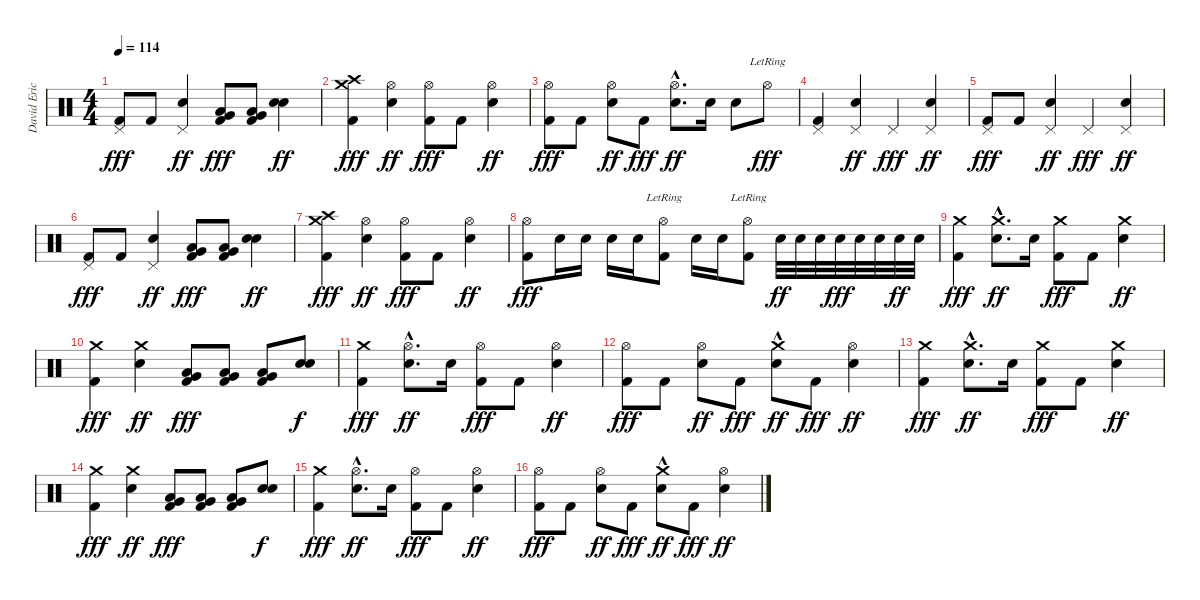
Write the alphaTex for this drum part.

\track ("David Eric Grohl" "David Eric") {instrument percussion}
\staff {score}
\articulation defaults
\ts (4 4)
\tempo 114
\clef neutral
\ks c
("Pedal Hi-Hat (hit)" "Kick (hit) 2").8{dy fff} "Kick (hit) 2".8 ("Pedal Hi-Hat (hit)" "Electric Snare (hit)").4{dy ff} ("Low Tom (hit)" "Very Low Tom (hit)" "Kick (hit) 2").8{dy fff} ("Low Tom (hit)" "Very Low Tom (hit)" "Kick (hit) 2").8 ("Electric Snare (hit)" "Electric Snare (hit)").4{dy ff} |
("Crash medium (hit)" "Crash high (hit)" "Kick (hit) 2").4{dy fff} ("Hi-Hat (open)" "Electric Snare (hit)").4{dy ff} ("Hi-Hat (open)" "Kick (hit) 2").8{dy fff} "Kick (hit) 2".8 ("Hi-Hat (open)" "Electric Snare (hit)").4{dy ff} |
("Hi-Hat (open)" "Kick (hit) 2").8{dy fff} "Kick (hit) 2".8 ("Hi-Hat (open)" "Electric Snare (hit)").8{dy ff} "Kick (hit) 2".8{dy fff} ("Hi-Hat (open)"{hac} "Electric Snare (hit)"{hac}).8{d dy ff} "Electric Snare (hit)".16 "Electric Snare (hit)".8 "Hi-Hat (open)"{lr}.8{dy fff} |
("Pedal Hi-Hat (hit)" "Kick (hit) 2").4 ("Pedal Hi-Hat (hit)" "Electric Snare (hit)").4{dy ff} "Pedal Hi-Hat (hit)".4{dy fff} ("Pedal Hi-Hat (hit)" "Electric Snare (hit)").4{dy ff} |
("Pedal Hi-Hat (hit)" "Kick (hit) 2").8{dy fff} "Kick (hit) 2".8 ("Pedal Hi-Hat (hit)" "Electric Snare (hit)").4{dy ff} "Pedal Hi-Hat (hit)".4{dy fff} ("Pedal Hi-Hat (hit)" "Electric Snare (hit)").4{dy ff} |
("Pedal Hi-Hat (hit)" "Kick (hit) 2").8{dy fff} "Kick (hit) 2".8 ("Pedal Hi-Hat (hit)" "Electric Snare (hit)").4{dy ff} ("Low Tom (hit)" "Very Low Tom (hit)" "Kick (hit) 2").8{dy fff} ("Low Tom (hit)" "Very Low Tom (hit)" "Kick (hit) 2").8 ("Electric Snare (hit)" "Electric Snare (hit)").4{dy ff} |
("Crash medium (hit)" "Crash high (hit)" "Kick (hit) 2").4{dy fff} ("Hi-Hat (open)" "Electric Snare (hit)").4{dy ff} ("Hi-Hat (open)" "Kick (hit) 2").8{dy fff} "Kick (hit) 2".8 ("Hi-Hat (open)" "Electric Snare (hit)").4{dy ff} |
("Hi-Hat (open)" "Kick (hit) 2").8{dy fff} "Electric Snare (hit)".16 "Electric Snare (hit)".16 "Electric Snare (hit)".16 "Electric Snare (hit)".16 ("Hi-Hat (open)"{lr} "Kick (hit) 2").8 "Electric Snare (hit)".16 "Electric Snare (hit)".16 ("Hi-Hat (open)"{lr} "Kick (hit) 2").8 "Electric Snare (hit)".32{dy ff} "Electric Snare (hit)".32 "Electric Snare (hit)".32 "Electric Snare (hit)".32{dy fff} "Electric Snare (hit)".32 "Electric Snare (hit)".32 "Electric Snare (hit)".32{dy ff} "Electric Snare (hit)".32 |
("Crash medium (hit)" "Kick (hit) 2").4{dy fff} ("Crash medium (hit)"{hac} "Electric Snare (hit)"{hac}).8{d dy ff} "Electric Snare (hit)".16 ("Crash medium (hit)" "Kick (hit) 2").8{dy fff} "Kick (hit) 2".8 ("Crash medium (hit)" "Electric Snare (hit)").4{dy ff} |
("Crash medium (hit)" "Kick (hit) 2").4{dy fff} ("Crash medium (hit)" "Electric Snare (hit)").4{dy ff} ("Low Tom (hit)" "Very Low Tom (hit)" "Kick (hit) 2").8{dy fff} ("Low Tom (hit)" "Very Low Tom (hit)" "Kick (hit) 2").8 ("Low Tom (hit)" "Very Low Tom (hit)" "Kick (hit) 2").8 ("Electric Snare (hit)" "Electric Snare (hit)").8{dy f} |
("Crash medium (hit)" "Kick (hit) 2").4{dy fff} ("Hi-Hat (open)"{hac} "Electric Snare (hit)"{hac}).8{d dy ff} "Electric Snare (hit)".16 ("Hi-Hat (open)" "Kick (hit) 2").8{dy fff} "Kick (hit) 2".8 ("Hi-Hat (open)" "Electric Snare (hit)").4{dy ff} |
("Hi-Hat (open)" "Kick (hit) 2").8{dy fff} "Kick (hit) 2".8 ("Hi-Hat (open)" "Electric Snare (hit)").8{dy ff} "Kick (hit) 2".8{dy fff} ("Crash medium (hit)"{hac} "Electric Snare (hit)").8{dy ff} "Kick (hit) 2".8{dy fff} ("Hi-Hat (open)" "Electric Snare (hit)").4{dy ff} |
("Crash medium (hit)" "Kick (hit) 2").4{dy fff} ("Crash medium (hit)"{hac} "Electric Snare (hit)"{hac}).8{d dy ff} "Electric Snare (hit)".16 ("Crash medium (hit)" "Kick (hit) 2").8{dy fff} "Kick (hit) 2".8 ("Crash medium (hit)" "Electric Snare (hit)").4{dy ff} |
("Crash medium (hit)" "Kick (hit) 2").4{dy fff} ("Crash medium (hit)" "Electric Snare (hit)").4{dy ff} ("Low Tom (hit)" "Very Low Tom (hit)" "Kick (hit) 2").8{dy fff} ("Low Tom (hit)" "Very Low Tom (hit)" "Kick (hit) 2").8 ("Low Tom (hit)" "Very Low Tom (hit)" "Kick (hit) 2").8 ("Electric Snare (hit)" "Electric Snare (hit)").8{dy f} |
("Crash medium (hit)" "Kick (hit) 2").4{dy fff} ("Hi-Hat (open)"{hac} "Electric Snare (hit)"{hac}).8{d dy ff} "Electric Snare (hit)".16 ("Hi-Hat (open)" "Kick (hit) 2").8{dy fff} "Kick (hit) 2".8 ("Hi-Hat (open)" "Electric Snare (hit)").4{dy ff} |
("Hi-Hat (open)" "Kick (hit) 2").8{dy fff} "Kick (hit) 2".8 ("Hi-Hat (open)" "Electric Snare (hit)").8{dy ff} "Kick (hit) 2".8{dy fff} ("Crash medium (hit)"{hac} "Electric Snare (hit)").8{dy ff} "Kick (hit) 2".8{dy fff} ("Hi-Hat (open)" "Electric Snare (hit)").4{dy ff}
